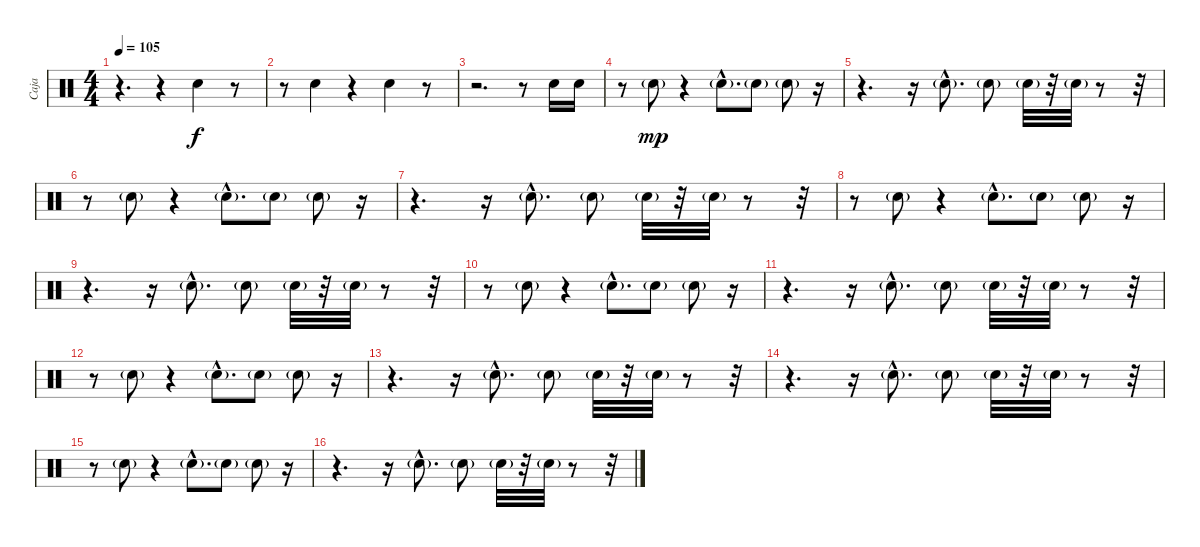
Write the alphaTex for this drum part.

\track ("Caja" "Caja") {instrument percussion}
\staff {score}
\articulation defaults
\ts (4 4)
\tempo 105
\clef neutral
\ks c
r.4{d dy f} r.4 "Snare (hit) 2".4 r.8 |
r.8 "Snare (hit) 2".4 r.4 "Snare (hit) 2".4 r.8 |
r.2{d} r.8 "Snare (hit) 2".16 "Snare (hit) 2".16 |
r.8 "Electric Snare (hit)"{g}.8{dy mp} r.4 "Electric Snare (hit)"{g hac}.8{d} "Electric Snare (hit)"{g}.8 "Electric Snare (hit)"{g}.8 r.16 |
r.4{d} r.16 "Electric Snare (hit)"{g hac}.8{d} "Electric Snare (hit)"{g}.8 "Electric Snare (hit)"{g}.32 r.32 "Electric Snare (hit)"{g}.32 r.8 r.32 |
r.8 "Electric Snare (hit)"{g}.8 r.4 "Electric Snare (hit)"{g hac}.8{d} "Electric Snare (hit)"{g}.8 "Electric Snare (hit)"{g}.8 r.16 |
r.4{d} r.16 "Electric Snare (hit)"{g hac}.8{d} "Electric Snare (hit)"{g}.8 "Electric Snare (hit)"{g}.32 r.32 "Electric Snare (hit)"{g}.32 r.8 r.32 |
r.8 "Electric Snare (hit)"{g}.8 r.4 "Electric Snare (hit)"{g hac}.8{d} "Electric Snare (hit)"{g}.8 "Electric Snare (hit)"{g}.8 r.16 |
r.4{d} r.16 "Electric Snare (hit)"{g hac}.8{d} "Electric Snare (hit)"{g}.8 "Electric Snare (hit)"{g}.32 r.32 "Electric Snare (hit)"{g}.32 r.8 r.32 |
r.8 "Electric Snare (hit)"{g}.8 r.4 "Electric Snare (hit)"{g hac}.8{d} "Electric Snare (hit)"{g}.8 "Electric Snare (hit)"{g}.8 r.16 |
r.4{d} r.16 "Electric Snare (hit)"{g hac}.8{d} "Electric Snare (hit)"{g}.8 "Electric Snare (hit)"{g}.32 r.32 "Electric Snare (hit)"{g}.32 r.8 r.32 |
r.8 "Electric Snare (hit)"{g}.8 r.4 "Electric Snare (hit)"{g hac}.8{d} "Electric Snare (hit)"{g}.8 "Electric Snare (hit)"{g}.8 r.16 |
r.4{d} r.16 "Electric Snare (hit)"{g hac}.8{d} "Electric Snare (hit)"{g}.8 "Electric Snare (hit)"{g}.32 r.32 "Electric Snare (hit)"{g}.32 r.8 r.32 |
r.4{d} r.16 "Electric Snare (hit)"{g hac}.8{d} "Electric Snare (hit)"{g}.8 "Electric Snare (hit)"{g}.32 r.32 "Electric Snare (hit)"{g}.32 r.8 r.32 |
r.8 "Electric Snare (hit)"{g}.8 r.4 "Electric Snare (hit)"{g hac}.8{d} "Electric Snare (hit)"{g}.8 "Electric Snare (hit)"{g}.8 r.16 |
r.4{d} r.16 "Electric Snare (hit)"{g hac}.8{d} "Electric Snare (hit)"{g}.8 "Electric Snare (hit)"{g}.32 r.32 "Electric Snare (hit)"{g}.32 r.8 r.32
